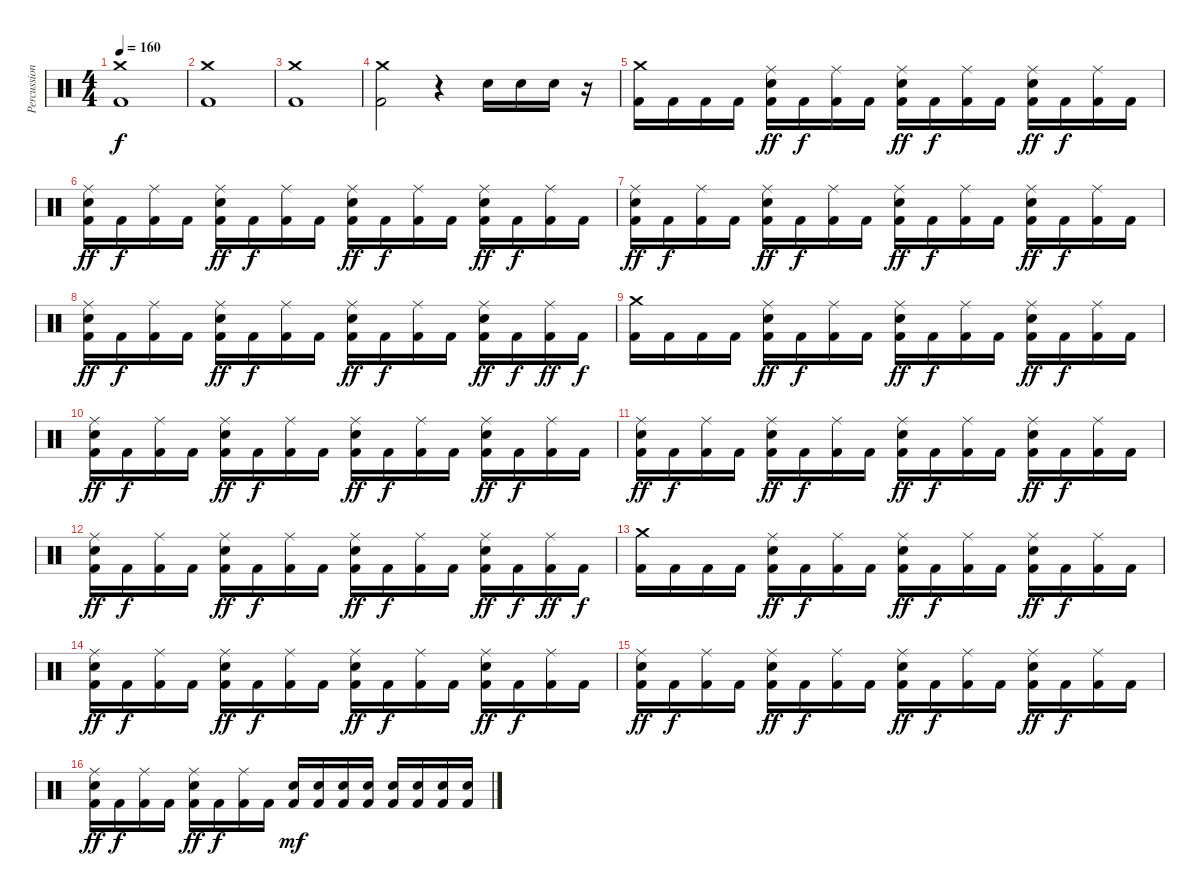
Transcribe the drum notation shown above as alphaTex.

\track ("Percussioni" "Percussion") {instrument percussion}
\staff {score}
\articulation defaults
\ts (4 4)
\tempo 160
\clef neutral
\ks c
("Kick (hit) 2" "Crash medium (hit)").1{dy f} |
("Kick (hit) 2" "Crash medium (hit)").1 |
("Kick (hit) 2" "Crash medium (hit)").1 |
("Kick (hit) 2" "Crash medium (hit)").2 r.4 "Snare (hit) 2".16 "Snare (hit) 2".16 "Snare (hit) 2".16 r.16 |
("Kick (hit) 2" "Crash medium (hit)").16 "Kick (hit) 2".16 "Kick (hit) 2".16 "Kick (hit) 2".16 ("Kick (hit) 2" "Snare (hit) 2" "Ride (middle)").16{dy ff} "Kick (hit) 2".16{dy f} ("Kick (hit) 2" "Ride (middle)").16 "Kick (hit) 2".16 ("Kick (hit) 2" "Snare (hit) 2" "Ride (middle)").16{dy ff} "Kick (hit) 2".16{dy f} ("Kick (hit) 2" "Ride (middle)").16 "Kick (hit) 2".16 ("Kick (hit) 2" "Snare (hit) 2" "Ride (middle)").16{dy ff} "Kick (hit) 2".16{dy f} ("Kick (hit) 2" "Ride (middle)").16 "Kick (hit) 2".16 |
("Kick (hit) 2" "Snare (hit) 2" "Ride (middle)").16{dy ff} "Kick (hit) 2".16{dy f} ("Kick (hit) 2" "Ride (middle)").16 "Kick (hit) 2".16 ("Kick (hit) 2" "Snare (hit) 2" "Ride (middle)").16{dy ff} "Kick (hit) 2".16{dy f} ("Kick (hit) 2" "Ride (middle)").16 "Kick (hit) 2".16 ("Kick (hit) 2" "Snare (hit) 2" "Ride (middle)").16{dy ff} "Kick (hit) 2".16{dy f} ("Kick (hit) 2" "Ride (middle)").16 "Kick (hit) 2".16 ("Kick (hit) 2" "Snare (hit) 2" "Ride (middle)").16{dy ff} "Kick (hit) 2".16{dy f} ("Kick (hit) 2" "Ride (middle)").16 "Kick (hit) 2".16 |
("Kick (hit) 2" "Snare (hit) 2" "Ride (middle)").16{dy ff} "Kick (hit) 2".16{dy f} ("Kick (hit) 2" "Ride (middle)").16 "Kick (hit) 2".16 ("Kick (hit) 2" "Snare (hit) 2" "Ride (middle)").16{dy ff} "Kick (hit) 2".16{dy f} ("Kick (hit) 2" "Ride (middle)").16 "Kick (hit) 2".16 ("Kick (hit) 2" "Snare (hit) 2" "Ride (middle)").16{dy ff} "Kick (hit) 2".16{dy f} ("Kick (hit) 2" "Ride (middle)").16 "Kick (hit) 2".16 ("Kick (hit) 2" "Snare (hit) 2" "Ride (middle)").16{dy ff} "Kick (hit) 2".16{dy f} ("Kick (hit) 2" "Ride (middle)").16 "Kick (hit) 2".16 |
("Kick (hit) 2" "Snare (hit) 2" "Ride (middle)").16{dy ff} "Kick (hit) 2".16{dy f} ("Kick (hit) 2" "Ride (middle)").16 "Kick (hit) 2".16 ("Kick (hit) 2" "Snare (hit) 2" "Ride (middle)").16{dy ff} "Kick (hit) 2".16{dy f} ("Kick (hit) 2" "Ride (middle)").16 "Kick (hit) 2".16 ("Kick (hit) 2" "Snare (hit) 2" "Ride (middle)").16{dy ff} "Kick (hit) 2".16{dy f} ("Kick (hit) 2" "Ride (middle)").16 "Kick (hit) 2".16 ("Kick (hit) 2" "Snare (hit) 2" "Ride (middle)").16{dy ff} "Kick (hit) 2".16{dy f} ("Kick (hit) 2" "Ride (middle)").16{dy ff} "Kick (hit) 2".16{dy f} |
("Kick (hit) 2" "Crash medium (hit)").16 "Kick (hit) 2".16 "Kick (hit) 2".16 "Kick (hit) 2".16 ("Kick (hit) 2" "Snare (hit) 2" "Ride (middle)").16{dy ff} "Kick (hit) 2".16{dy f} ("Kick (hit) 2" "Ride (middle)").16 "Kick (hit) 2".16 ("Kick (hit) 2" "Snare (hit) 2" "Ride (middle)").16{dy ff} "Kick (hit) 2".16{dy f} ("Kick (hit) 2" "Ride (middle)").16 "Kick (hit) 2".16 ("Kick (hit) 2" "Snare (hit) 2" "Ride (middle)").16{dy ff} "Kick (hit) 2".16{dy f} ("Kick (hit) 2" "Ride (middle)").16 "Kick (hit) 2".16 |
("Kick (hit) 2" "Snare (hit) 2" "Ride (middle)").16{dy ff} "Kick (hit) 2".16{dy f} ("Kick (hit) 2" "Ride (middle)").16 "Kick (hit) 2".16 ("Kick (hit) 2" "Snare (hit) 2" "Ride (middle)").16{dy ff} "Kick (hit) 2".16{dy f} ("Kick (hit) 2" "Ride (middle)").16 "Kick (hit) 2".16 ("Kick (hit) 2" "Snare (hit) 2" "Ride (middle)").16{dy ff} "Kick (hit) 2".16{dy f} ("Kick (hit) 2" "Ride (middle)").16 "Kick (hit) 2".16 ("Kick (hit) 2" "Snare (hit) 2" "Ride (middle)").16{dy ff} "Kick (hit) 2".16{dy f} ("Kick (hit) 2" "Ride (middle)").16 "Kick (hit) 2".16 |
("Kick (hit) 2" "Snare (hit) 2" "Ride (middle)").16{dy ff} "Kick (hit) 2".16{dy f} ("Kick (hit) 2" "Ride (middle)").16 "Kick (hit) 2".16 ("Kick (hit) 2" "Snare (hit) 2" "Ride (middle)").16{dy ff} "Kick (hit) 2".16{dy f} ("Kick (hit) 2" "Ride (middle)").16 "Kick (hit) 2".16 ("Kick (hit) 2" "Snare (hit) 2" "Ride (middle)").16{dy ff} "Kick (hit) 2".16{dy f} ("Kick (hit) 2" "Ride (middle)").16 "Kick (hit) 2".16 ("Kick (hit) 2" "Snare (hit) 2" "Ride (middle)").16{dy ff} "Kick (hit) 2".16{dy f} ("Kick (hit) 2" "Ride (middle)").16 "Kick (hit) 2".16 |
("Kick (hit) 2" "Snare (hit) 2" "Ride (middle)").16{dy ff} "Kick (hit) 2".16{dy f} ("Kick (hit) 2" "Ride (middle)").16 "Kick (hit) 2".16 ("Kick (hit) 2" "Snare (hit) 2" "Ride (middle)").16{dy ff} "Kick (hit) 2".16{dy f} ("Kick (hit) 2" "Ride (middle)").16 "Kick (hit) 2".16 ("Kick (hit) 2" "Snare (hit) 2" "Ride (middle)").16{dy ff} "Kick (hit) 2".16{dy f} ("Kick (hit) 2" "Ride (middle)").16 "Kick (hit) 2".16 ("Kick (hit) 2" "Snare (hit) 2" "Ride (middle)").16{dy ff} "Kick (hit) 2".16{dy f} ("Kick (hit) 2" "Ride (middle)").16{dy ff} "Kick (hit) 2".16{dy f} |
("Kick (hit) 2" "Crash medium (hit)").16 "Kick (hit) 2".16 "Kick (hit) 2".16 "Kick (hit) 2".16 ("Kick (hit) 2" "Snare (hit) 2" "Ride (middle)").16{dy ff} "Kick (hit) 2".16{dy f} ("Kick (hit) 2" "Ride (middle)").16 "Kick (hit) 2".16 ("Kick (hit) 2" "Snare (hit) 2" "Ride (middle)").16{dy ff} "Kick (hit) 2".16{dy f} ("Kick (hit) 2" "Ride (middle)").16 "Kick (hit) 2".16 ("Kick (hit) 2" "Snare (hit) 2" "Ride (middle)").16{dy ff} "Kick (hit) 2".16{dy f} ("Kick (hit) 2" "Ride (middle)").16 "Kick (hit) 2".16 |
("Kick (hit) 2" "Snare (hit) 2" "Ride (middle)").16{dy ff} "Kick (hit) 2".16{dy f} ("Kick (hit) 2" "Ride (middle)").16 "Kick (hit) 2".16 ("Kick (hit) 2" "Snare (hit) 2" "Ride (middle)").16{dy ff} "Kick (hit) 2".16{dy f} ("Kick (hit) 2" "Ride (middle)").16 "Kick (hit) 2".16 ("Kick (hit) 2" "Snare (hit) 2" "Ride (middle)").16{dy ff} "Kick (hit) 2".16{dy f} ("Kick (hit) 2" "Ride (middle)").16 "Kick (hit) 2".16 ("Kick (hit) 2" "Snare (hit) 2" "Ride (middle)").16{dy ff} "Kick (hit) 2".16{dy f} ("Kick (hit) 2" "Ride (middle)").16 "Kick (hit) 2".16 |
("Kick (hit) 2" "Snare (hit) 2" "Ride (middle)").16{dy ff} "Kick (hit) 2".16{dy f} ("Kick (hit) 2" "Ride (middle)").16 "Kick (hit) 2".16 ("Kick (hit) 2" "Snare (hit) 2" "Ride (middle)").16{dy ff} "Kick (hit) 2".16{dy f} ("Kick (hit) 2" "Ride (middle)").16 "Kick (hit) 2".16 ("Kick (hit) 2" "Snare (hit) 2" "Ride (middle)").16{dy ff} "Kick (hit) 2".16{dy f} ("Kick (hit) 2" "Ride (middle)").16 "Kick (hit) 2".16 ("Kick (hit) 2" "Snare (hit) 2" "Ride (middle)").16{dy ff} "Kick (hit) 2".16{dy f} ("Kick (hit) 2" "Ride (middle)").16 "Kick (hit) 2".16 |
("Kick (hit) 2" "Snare (hit) 2" "Ride (middle)").16{dy ff} "Kick (hit) 2".16{dy f} ("Kick (hit) 2" "Ride (middle)").16 "Kick (hit) 2".16 ("Kick (hit) 2" "Snare (hit) 2" "Ride (middle)").16{dy ff} "Kick (hit) 2".16{dy f} ("Kick (hit) 2" "Ride (middle)").16 "Kick (hit) 2".16 ("Kick (hit) 2" "Snare (hit) 2").16{dy mf} ("Kick (hit) 2" "Snare (hit) 2").16 ("Kick (hit) 2" "Snare (hit) 2").16 ("Kick (hit) 2" "Snare (hit) 2").16 ("Kick (hit) 2" "Snare (hit) 2").16 ("Kick (hit) 2" "Snare (hit) 2").16 ("Kick (hit) 2" "Snare (hit) 2").16 ("Kick (hit) 2" "Snare (hit) 2").16
